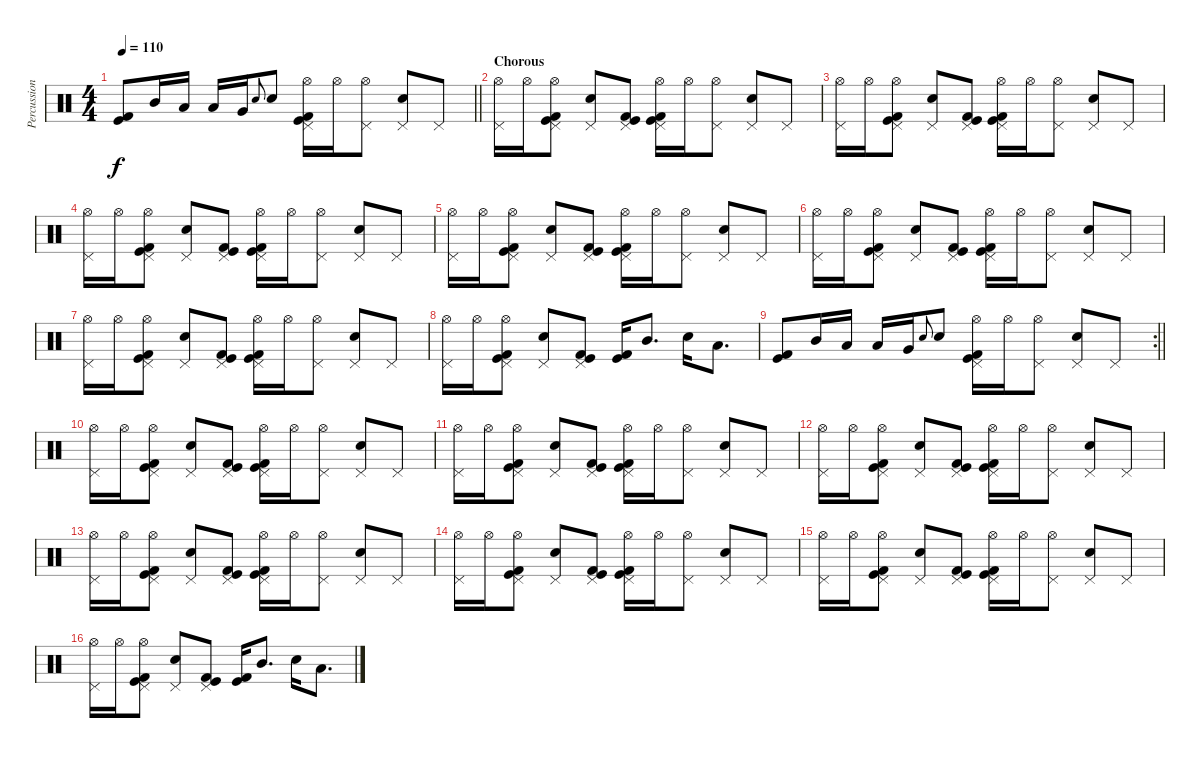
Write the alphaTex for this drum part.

\track ("Percussion" "Percussion") {instrument percussion}
\staff {score}
\articulation defaults
\ts (4 4)
\tempo 110
\clef neutral
\barLineRight lightlight
\ks c
("Kick (hit)" "Kick (hit) 2").8{dy f} "Mid Tom (hit)".16 "Low Tom (hit)".16 "Low Tom (hit)".16 "Very Low Tom (hit)".16 "Electric Snare (hit)".8{gr onbeat} "Electric Snare (hit)".8 ("Hi-Hat (open)" "Pedal Hi-Hat (hit)" "Kick (hit)" "Kick (hit) 2").16 "Hi-Hat (open)".16 ("Hi-Hat (open)" "Pedal Hi-Hat (hit)").8 ("Pedal Hi-Hat (hit)" "Electric Snare (hit)").8 "Pedal Hi-Hat (hit)".8 |
\section ("" "Chorous ")
("Hi-Hat (open)" "Pedal Hi-Hat (hit)").16 "Hi-Hat (open)".16 ("Hi-Hat (open)" "Pedal Hi-Hat (hit)" "Kick (hit)" "Kick (hit) 2").8 ("Pedal Hi-Hat (hit)" "Electric Snare (hit)").8 ("Pedal Hi-Hat (hit)" "Kick (hit)" "Kick (hit) 2").8 ("Hi-Hat (open)" "Pedal Hi-Hat (hit)" "Kick (hit)" "Kick (hit) 2").16 "Hi-Hat (open)".16 ("Hi-Hat (open)" "Pedal Hi-Hat (hit)").8 ("Pedal Hi-Hat (hit)" "Electric Snare (hit)").8 "Pedal Hi-Hat (hit)".8 |
("Hi-Hat (open)" "Pedal Hi-Hat (hit)").16 "Hi-Hat (open)".16 ("Hi-Hat (open)" "Pedal Hi-Hat (hit)" "Kick (hit)" "Kick (hit) 2").8 ("Pedal Hi-Hat (hit)" "Electric Snare (hit)").8 ("Pedal Hi-Hat (hit)" "Kick (hit)" "Kick (hit) 2").8 ("Hi-Hat (open)" "Pedal Hi-Hat (hit)" "Kick (hit)" "Kick (hit) 2").16 "Hi-Hat (open)".16 ("Hi-Hat (open)" "Pedal Hi-Hat (hit)").8 ("Pedal Hi-Hat (hit)" "Electric Snare (hit)").8 "Pedal Hi-Hat (hit)".8 |
("Hi-Hat (open)" "Pedal Hi-Hat (hit)").16 "Hi-Hat (open)".16 ("Hi-Hat (open)" "Pedal Hi-Hat (hit)" "Kick (hit)" "Kick (hit) 2").8 ("Pedal Hi-Hat (hit)" "Electric Snare (hit)").8 ("Pedal Hi-Hat (hit)" "Kick (hit)" "Kick (hit) 2").8 ("Hi-Hat (open)" "Pedal Hi-Hat (hit)" "Kick (hit)" "Kick (hit) 2").16 "Hi-Hat (open)".16 ("Hi-Hat (open)" "Pedal Hi-Hat (hit)").8 ("Pedal Hi-Hat (hit)" "Electric Snare (hit)").8 "Pedal Hi-Hat (hit)".8 |
("Hi-Hat (open)" "Pedal Hi-Hat (hit)").16 "Hi-Hat (open)".16 ("Hi-Hat (open)" "Pedal Hi-Hat (hit)" "Kick (hit)" "Kick (hit) 2").8 ("Pedal Hi-Hat (hit)" "Electric Snare (hit)").8 ("Pedal Hi-Hat (hit)" "Kick (hit)" "Kick (hit) 2").8 ("Hi-Hat (open)" "Pedal Hi-Hat (hit)" "Kick (hit)" "Kick (hit) 2").16 "Hi-Hat (open)".16 ("Hi-Hat (open)" "Pedal Hi-Hat (hit)").8 ("Pedal Hi-Hat (hit)" "Electric Snare (hit)").8 "Pedal Hi-Hat (hit)".8 |
("Hi-Hat (open)" "Pedal Hi-Hat (hit)").16 "Hi-Hat (open)".16 ("Hi-Hat (open)" "Pedal Hi-Hat (hit)" "Kick (hit)" "Kick (hit) 2").8 ("Pedal Hi-Hat (hit)" "Electric Snare (hit)").8 ("Pedal Hi-Hat (hit)" "Kick (hit)" "Kick (hit) 2").8 ("Hi-Hat (open)" "Pedal Hi-Hat (hit)" "Kick (hit)" "Kick (hit) 2").16 "Hi-Hat (open)".16 ("Hi-Hat (open)" "Pedal Hi-Hat (hit)").8 ("Pedal Hi-Hat (hit)" "Electric Snare (hit)").8 "Pedal Hi-Hat (hit)".8 |
("Hi-Hat (open)" "Pedal Hi-Hat (hit)").16 "Hi-Hat (open)".16 ("Hi-Hat (open)" "Pedal Hi-Hat (hit)" "Kick (hit)" "Kick (hit) 2").8 ("Pedal Hi-Hat (hit)" "Electric Snare (hit)").8 ("Pedal Hi-Hat (hit)" "Kick (hit)" "Kick (hit) 2").8 ("Hi-Hat (open)" "Pedal Hi-Hat (hit)" "Kick (hit)" "Kick (hit) 2").16 "Hi-Hat (open)".16 ("Hi-Hat (open)" "Pedal Hi-Hat (hit)").8 ("Pedal Hi-Hat (hit)" "Electric Snare (hit)").8 "Pedal Hi-Hat (hit)".8 |
("Hi-Hat (open)" "Pedal Hi-Hat (hit)").16 "Hi-Hat (open)".16 ("Hi-Hat (open)" "Pedal Hi-Hat (hit)" "Kick (hit)" "Kick (hit) 2").8 ("Pedal Hi-Hat (hit)" "Electric Snare (hit)").8 ("Pedal Hi-Hat (hit)" "Kick (hit)" "Kick (hit) 2").8 ("Kick (hit)" "Kick (hit) 2").16 "Mid Tom (hit)".8{d} "Electric Snare (hit)".16 "Low Tom (hit)".8{d} |
\rc 2
\barLineRight lightlight
("Kick (hit)" "Kick (hit) 2").8 "Mid Tom (hit)".16 "Low Tom (hit)".16 "Low Tom (hit)".16 "Very Low Tom (hit)".16 "Electric Snare (hit)".8{gr onbeat} "Electric Snare (hit)".8 ("Hi-Hat (open)" "Pedal Hi-Hat (hit)" "Kick (hit)" "Kick (hit) 2").16 "Hi-Hat (open)".16 ("Hi-Hat (open)" "Pedal Hi-Hat (hit)").8 ("Pedal Hi-Hat (hit)" "Electric Snare (hit)").8 "Pedal Hi-Hat (hit)".8 |
\section ("" "")
("Hi-Hat (open)" "Pedal Hi-Hat (hit)").16 "Hi-Hat (open)".16 ("Hi-Hat (open)" "Pedal Hi-Hat (hit)" "Kick (hit)" "Kick (hit) 2").8 ("Pedal Hi-Hat (hit)" "Electric Snare (hit)").8 ("Pedal Hi-Hat (hit)" "Kick (hit)" "Kick (hit) 2").8 ("Hi-Hat (open)" "Pedal Hi-Hat (hit)" "Kick (hit)" "Kick (hit) 2").16 "Hi-Hat (open)".16 ("Hi-Hat (open)" "Pedal Hi-Hat (hit)").8 ("Pedal Hi-Hat (hit)" "Electric Snare (hit)").8 "Pedal Hi-Hat (hit)".8 |
("Hi-Hat (open)" "Pedal Hi-Hat (hit)").16 "Hi-Hat (open)".16 ("Hi-Hat (open)" "Pedal Hi-Hat (hit)" "Kick (hit)" "Kick (hit) 2").8 ("Pedal Hi-Hat (hit)" "Electric Snare (hit)").8 ("Pedal Hi-Hat (hit)" "Kick (hit)" "Kick (hit) 2").8 ("Hi-Hat (open)" "Pedal Hi-Hat (hit)" "Kick (hit)" "Kick (hit) 2").16 "Hi-Hat (open)".16 ("Hi-Hat (open)" "Pedal Hi-Hat (hit)").8 ("Pedal Hi-Hat (hit)" "Electric Snare (hit)").8 "Pedal Hi-Hat (hit)".8 |
("Hi-Hat (open)" "Pedal Hi-Hat (hit)").16 "Hi-Hat (open)".16 ("Hi-Hat (open)" "Pedal Hi-Hat (hit)" "Kick (hit)" "Kick (hit) 2").8 ("Pedal Hi-Hat (hit)" "Electric Snare (hit)").8 ("Pedal Hi-Hat (hit)" "Kick (hit)" "Kick (hit) 2").8 ("Hi-Hat (open)" "Pedal Hi-Hat (hit)" "Kick (hit)" "Kick (hit) 2").16 "Hi-Hat (open)".16 ("Hi-Hat (open)" "Pedal Hi-Hat (hit)").8 ("Pedal Hi-Hat (hit)" "Electric Snare (hit)").8 "Pedal Hi-Hat (hit)".8 |
("Hi-Hat (open)" "Pedal Hi-Hat (hit)").16 "Hi-Hat (open)".16 ("Hi-Hat (open)" "Pedal Hi-Hat (hit)" "Kick (hit)" "Kick (hit) 2").8 ("Pedal Hi-Hat (hit)" "Electric Snare (hit)").8 ("Pedal Hi-Hat (hit)" "Kick (hit)" "Kick (hit) 2").8 ("Hi-Hat (open)" "Pedal Hi-Hat (hit)" "Kick (hit)" "Kick (hit) 2").16 "Hi-Hat (open)".16 ("Hi-Hat (open)" "Pedal Hi-Hat (hit)").8 ("Pedal Hi-Hat (hit)" "Electric Snare (hit)").8 "Pedal Hi-Hat (hit)".8 |
("Hi-Hat (open)" "Pedal Hi-Hat (hit)").16 "Hi-Hat (open)".16 ("Hi-Hat (open)" "Pedal Hi-Hat (hit)" "Kick (hit)" "Kick (hit) 2").8 ("Pedal Hi-Hat (hit)" "Electric Snare (hit)").8 ("Pedal Hi-Hat (hit)" "Kick (hit)" "Kick (hit) 2").8 ("Hi-Hat (open)" "Pedal Hi-Hat (hit)" "Kick (hit)" "Kick (hit) 2").16 "Hi-Hat (open)".16 ("Hi-Hat (open)" "Pedal Hi-Hat (hit)").8 ("Pedal Hi-Hat (hit)" "Electric Snare (hit)").8 "Pedal Hi-Hat (hit)".8 |
("Hi-Hat (open)" "Pedal Hi-Hat (hit)").16 "Hi-Hat (open)".16 ("Hi-Hat (open)" "Pedal Hi-Hat (hit)" "Kick (hit)" "Kick (hit) 2").8 ("Pedal Hi-Hat (hit)" "Electric Snare (hit)").8 ("Pedal Hi-Hat (hit)" "Kick (hit)" "Kick (hit) 2").8 ("Hi-Hat (open)" "Pedal Hi-Hat (hit)" "Kick (hit)" "Kick (hit) 2").16 "Hi-Hat (open)".16 ("Hi-Hat (open)" "Pedal Hi-Hat (hit)").8 ("Pedal Hi-Hat (hit)" "Electric Snare (hit)").8 "Pedal Hi-Hat (hit)".8 |
("Hi-Hat (open)" "Pedal Hi-Hat (hit)").16 "Hi-Hat (open)".16 ("Hi-Hat (open)" "Pedal Hi-Hat (hit)" "Kick (hit)" "Kick (hit) 2").8 ("Pedal Hi-Hat (hit)" "Electric Snare (hit)").8 ("Pedal Hi-Hat (hit)" "Kick (hit)" "Kick (hit) 2").8 ("Kick (hit)" "Kick (hit) 2").16 "Mid Tom (hit)".8{d} "Electric Snare (hit)".16 "Low Tom (hit)".8{d}
